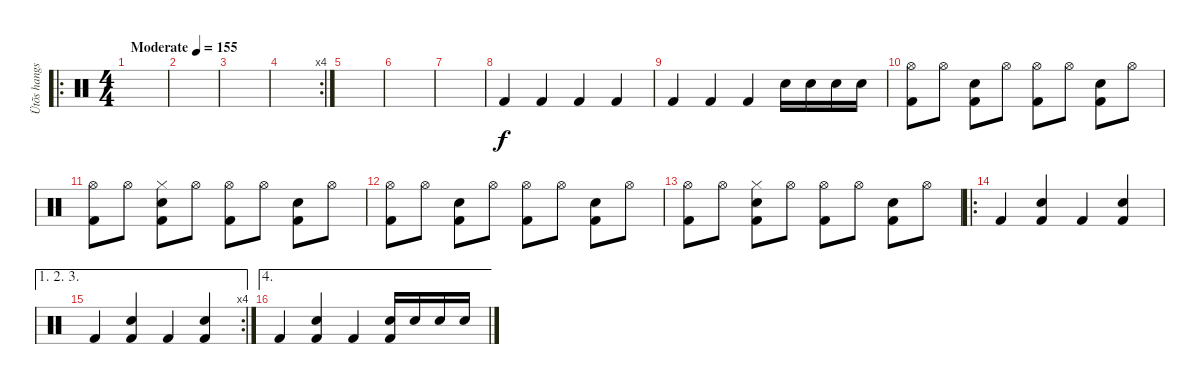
\track ("Ütõs hangszer" "Ütõs hangs") {instrument percussion}
\staff {score}
\articulation defaults
\ro
\ts (4 4)
\tempo (155 "Moderate")
\clef neutral
\ks c
|
|
|
\rc 4
|
|
|
|
"Kick (hit) 2".4 "Kick (hit) 2".4 "Kick (hit) 2".4 "Kick (hit) 2".4 |
"Kick (hit) 2".4 "Kick (hit) 2".4 "Kick (hit) 2".4 "Snare (hit) 2".16 "Snare (hit) 2".16 "Snare (hit) 2".16 "Snare (hit) 2".16 |
("Hi-Hat (open)" "Kick (hit) 2").8 "Hi-Hat (open)".8 ("Electric Snare (hit)" "Kick (hit) 2").8 "Hi-Hat (open)".8 ("Hi-Hat (open)" "Kick (hit) 2").8 "Hi-Hat (open)".8 ("Electric Snare (hit)" "Kick (hit) 2").8 "Hi-Hat (open)".8 |
("Hi-Hat (open)" "Kick (hit) 2").8 "Hi-Hat (open)".8 ("Electric Snare (hit)" "Hi-Hat (closed)" "Kick (hit) 2").8 "Hi-Hat (open)".8 ("Hi-Hat (open)" "Kick (hit) 2").8 "Hi-Hat (open)".8 ("Electric Snare (hit)" "Kick (hit) 2").8 "Hi-Hat (open)".8 |
("Hi-Hat (open)" "Kick (hit) 2").8 "Hi-Hat (open)".8 ("Electric Snare (hit)" "Kick (hit) 2").8 "Hi-Hat (open)".8 ("Hi-Hat (open)" "Kick (hit) 2").8 "Hi-Hat (open)".8 ("Electric Snare (hit)" "Kick (hit) 2").8 "Hi-Hat (open)".8 |
("Hi-Hat (open)" "Kick (hit) 2").8 "Hi-Hat (open)".8 ("Electric Snare (hit)" "Hi-Hat (closed)" "Kick (hit) 2").8 "Hi-Hat (open)".8 ("Hi-Hat (open)" "Kick (hit) 2").8 "Hi-Hat (open)".8 ("Electric Snare (hit)" "Kick (hit) 2").8 "Hi-Hat (open)".8 |
\ro "Kick (hit) 2".4
("Electric Snare (hit)" "Kick (hit) 2").4 "Kick (hit) 2".4 ("Electric Snare (hit)" "Kick (hit) 2").4 |
\ae (1 2 3)
\rc 4 "Kick (hit) 2".4
("Electric Snare (hit)" "Kick (hit) 2").4 "Kick (hit) 2".4 ("Electric Snare (hit)" "Kick (hit) 2").4 |
\ae 4 "Kick (hit) 2".4
("Electric Snare (hit)" "Kick (hit) 2").4 "Kick (hit) 2".4 ("Electric Snare (hit)" "Kick (hit) 2").16 "Electric Snare (hit)".16 "Electric Snare (hit)".16 "Electric Snare (hit)".16
